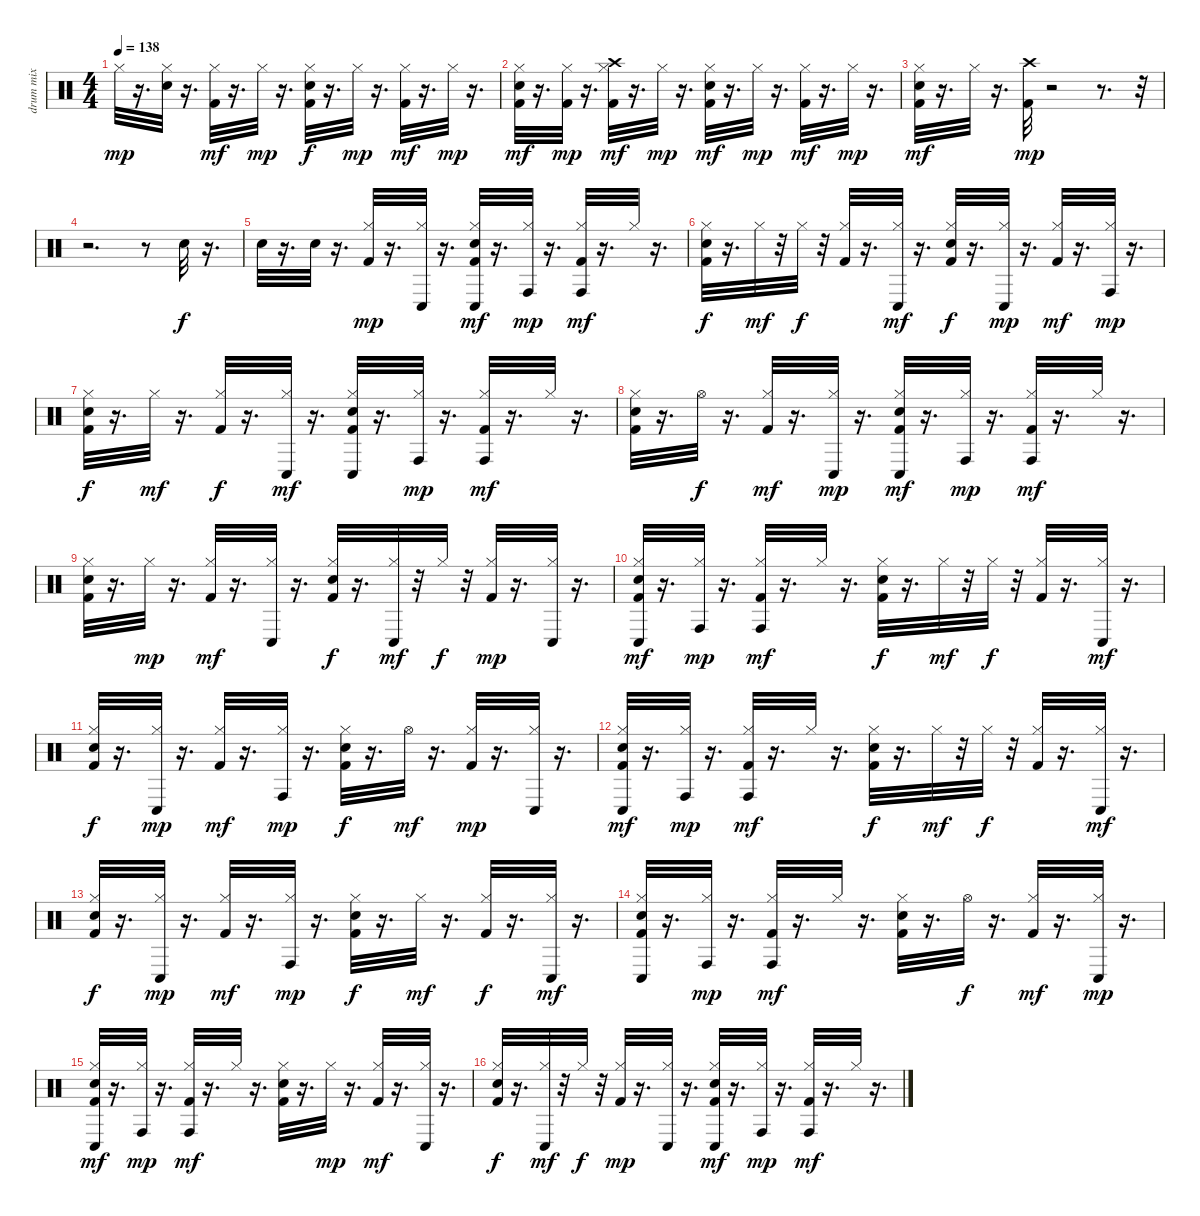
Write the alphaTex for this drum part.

\track ("drum mix" "drum mix") {instrument percussion}
\staff {score}
\articulation defaults
\ts (4 4)
\tempo 138
\clef neutral
\ks c "Hi-Hat (closed)".32{dy mp}
r.16{d} ("Snare (hit) 2" "Hi-Hat (closed)").32 r.16{d} ("Hi-Hat (closed)" "Kick (hit) 2").32{dy mf} r.16{d} "Hi-Hat (closed)".32{dy mp} r.16{d} ("Snare (hit) 2" "Hi-Hat (closed)" "Kick (hit) 2").32{dy f} r.16{d} "Hi-Hat (closed)".32{dy mp} r.16{d} ("Hi-Hat (closed)" "Kick (hit) 2").32{dy mf} r.16{d} "Hi-Hat (closed)".32{dy mp} r.16{d} |
("Snare (hit) 2" "Hi-Hat (closed)" "Kick (hit) 2").32{dy mf} r.16{d} ("Hi-Hat (closed)" "Kick (hit) 2").32{dy mp} r.16{d} ("Hi-Hat (closed)" "Crash high (hit)" "Kick (hit) 2").32{dy mf} r.16{d} "Hi-Hat (closed)".32{dy mp} r.16{d} ("Snare (hit) 2" "Hi-Hat (closed)" "Kick (hit) 2").32{dy mf} r.16{d} "Hi-Hat (closed)".32{dy mp} r.16{d} ("Hi-Hat (closed)" "Kick (hit) 2").32{dy mf} r.16{d} "Hi-Hat (closed)".32{dy mp} r.16{d} |
("Snare (hit) 2" "Hi-Hat (closed)" "Kick (hit) 2").32{dy mf} r.16{d} "Hi-Hat (closed)".32 r.16{d} ("Crash high (hit)" "Kick (hit) 2").32{dy mp} r.2 r.8{d} r.32 |
r.2{d} r.8 "Snare (hit) 2".32{dy f} r.16{d} |
"Snare (hit) 2".32 r.16{d} "Snare (hit) 2".32 r.16{d} ("Hi-Hat (closed)" "Kick (hit) 2").32{dy mp} r.16{d} ("Hi-Hat (closed)" "Conga low (hit)").32 r.16{d} ("Snare (hit) 2" "Hi-Hat (closed)" "Conga low (hit)" "Kick (hit) 2").32{dy mf} r.16{d} ("Hi-Hat (closed)" "Conga high (hit)").32{dy mp} r.16{d} ("Hi-Hat (closed)" "Conga high (hit)" "Kick (hit) 2").32{dy mf} r.16{d} "Hi-Hat (closed)".32 r.16{d} |
("Snare (hit) 2" "Hi-Hat (closed)" "Kick (hit) 2").32{dy f} r.16{d} "Hi-Hat (closed)".32{dy mf} r.32 "Hi-Hat (closed)".32{dy f} r.32 ("Hi-Hat (closed)" "Kick (hit) 2").32 r.16{d} ("Hi-Hat (closed)" "Conga low (hit)").32{dy mf} r.16{d} ("Snare (hit) 2" "Hi-Hat (closed)" "Kick (hit) 2").32{dy f} r.16{d} ("Hi-Hat (closed)" "Conga low (hit)").32{dy mp} r.16{d} ("Hi-Hat (closed)" "Kick (hit) 2").32{dy mf} r.16{d} ("Hi-Hat (closed)" "Conga high (hit)").32{dy mp} r.16{d} |
("Snare (hit) 2" "Hi-Hat (closed)" "Kick (hit) 2").32{dy f} r.16{d} "Hi-Hat (closed)".32{dy mf} r.16{d} ("Hi-Hat (closed)" "Kick (hit) 2").32{dy f} r.16{d} ("Hi-Hat (closed)" "Conga low (hit)").32{dy mf} r.16{d} ("Snare (hit) 2" "Hi-Hat (closed)" "Conga low (hit)" "Kick (hit) 2").32 r.16{d} ("Hi-Hat (closed)" "Conga high (hit)").32{dy mp} r.16{d} ("Hi-Hat (closed)" "Conga high (hit)" "Kick (hit) 2").32{dy mf} r.16{d} "Hi-Hat (closed)".32 r.16{d} |
("Snare (hit) 2" "Hi-Hat (closed)" "Kick (hit) 2").32 r.16{d} "Hi-Hat (open)".32{dy f} r.16{d} ("Hi-Hat (closed)" "Kick (hit) 2").32{dy mf} r.16{d} ("Hi-Hat (closed)" "Conga low (hit)").32{dy mp} r.16{d} ("Snare (hit) 2" "Hi-Hat (closed)" "Conga low (hit)" "Kick (hit) 2").32{dy mf} r.16{d} ("Hi-Hat (closed)" "Conga high (hit)").32{dy mp} r.16{d} ("Hi-Hat (closed)" "Conga high (hit)" "Kick (hit) 2").32{dy mf} r.16{d} "Hi-Hat (closed)".32 r.16{d} |
("Snare (hit) 2" "Hi-Hat (closed)" "Kick (hit) 2").32 r.16{d} "Hi-Hat (closed)".32{dy mp} r.16{d} ("Hi-Hat (closed)" "Kick (hit) 2").32{dy mf} r.16{d} ("Hi-Hat (closed)" "Conga low (hit)").32 r.16{d} ("Snare (hit) 2" "Hi-Hat (closed)" "Kick (hit) 2").32{dy f} r.16{d} ("Hi-Hat (closed)" "Conga low (hit)").32{dy mf} r.32 "Hi-Hat (closed)".32{dy f} r.32 ("Hi-Hat (closed)" "Kick (hit) 2").32{dy mp} r.16{d} ("Hi-Hat (closed)" "Conga low (hit)").32 r.16{d} |
("Snare (hit) 2" "Hi-Hat (closed)" "Conga low (hit)" "Kick (hit) 2").32{dy mf} r.16{d} ("Hi-Hat (closed)" "Conga high (hit)").32{dy mp} r.16{d} ("Hi-Hat (closed)" "Conga high (hit)" "Kick (hit) 2").32{dy mf} r.16{d} "Hi-Hat (closed)".32 r.16{d} ("Snare (hit) 2" "Hi-Hat (closed)" "Kick (hit) 2").32{dy f} r.16{d} "Hi-Hat (closed)".32{dy mf} r.32 "Hi-Hat (closed)".32{dy f} r.32 ("Hi-Hat (closed)" "Kick (hit) 2").32 r.16{d} ("Hi-Hat (closed)" "Conga low (hit)").32{dy mf} r.16{d} |
("Snare (hit) 2" "Hi-Hat (closed)" "Kick (hit) 2").32{dy f} r.16{d} ("Hi-Hat (closed)" "Conga low (hit)").32{dy mp} r.16{d} ("Hi-Hat (closed)" "Kick (hit) 2").32{dy mf} r.16{d} ("Hi-Hat (closed)" "Conga high (hit)").32{dy mp} r.16{d} ("Snare (hit) 2" "Hi-Hat (closed)" "Kick (hit) 2").32{dy f} r.16{d} "Hi-Hat (open)".32{dy mf} r.16{d} ("Hi-Hat (closed)" "Kick (hit) 2").32{dy mp} r.16{d} ("Hi-Hat (closed)" "Conga low (hit)").32 r.16{d} |
("Snare (hit) 2" "Hi-Hat (closed)" "Conga low (hit)" "Kick (hit) 2").32{dy mf} r.16{d} ("Hi-Hat (closed)" "Conga high (hit)").32{dy mp} r.16{d} ("Hi-Hat (closed)" "Conga high (hit)" "Kick (hit) 2").32{dy mf} r.16{d} "Hi-Hat (closed)".32 r.16{d} ("Snare (hit) 2" "Hi-Hat (closed)" "Kick (hit) 2").32{dy f} r.16{d} "Hi-Hat (closed)".32{dy mf} r.32 "Hi-Hat (closed)".32{dy f} r.32 ("Hi-Hat (closed)" "Kick (hit) 2").32 r.16{d} ("Hi-Hat (closed)" "Conga low (hit)").32{dy mf} r.16{d} |
("Snare (hit) 2" "Hi-Hat (closed)" "Kick (hit) 2").32{dy f} r.16{d} ("Hi-Hat (closed)" "Conga low (hit)").32{dy mp} r.16{d} ("Hi-Hat (closed)" "Kick (hit) 2").32{dy mf} r.16{d} ("Hi-Hat (closed)" "Conga high (hit)").32{dy mp} r.16{d} ("Snare (hit) 2" "Hi-Hat (closed)" "Kick (hit) 2").32{dy f} r.16{d} "Hi-Hat (closed)".32{dy mf} r.16{d} ("Hi-Hat (closed)" "Kick (hit) 2").32{dy f} r.16{d} ("Hi-Hat (closed)" "Conga low (hit)").32{dy mf} r.16{d} |
("Snare (hit) 2" "Hi-Hat (closed)" "Conga low (hit)" "Kick (hit) 2").32 r.16{d} ("Hi-Hat (closed)" "Conga high (hit)").32{dy mp} r.16{d} ("Hi-Hat (closed)" "Conga high (hit)" "Kick (hit) 2").32{dy mf} r.16{d} "Hi-Hat (closed)".32 r.16{d} ("Snare (hit) 2" "Hi-Hat (closed)" "Kick (hit) 2").32 r.16{d} "Hi-Hat (open)".32{dy f} r.16{d} ("Hi-Hat (closed)" "Kick (hit) 2").32{dy mf} r.16{d} ("Hi-Hat (closed)" "Conga low (hit)").32{dy mp} r.16{d} |
("Snare (hit) 2" "Hi-Hat (closed)" "Conga low (hit)" "Kick (hit) 2").32{dy mf} r.16{d} ("Hi-Hat (closed)" "Conga high (hit)").32{dy mp} r.16{d} ("Hi-Hat (closed)" "Conga high (hit)" "Kick (hit) 2").32{dy mf} r.16{d} "Hi-Hat (closed)".32 r.16{d} ("Snare (hit) 2" "Hi-Hat (closed)" "Kick (hit) 2").32 r.16{d} "Hi-Hat (closed)".32{dy mp} r.16{d} ("Hi-Hat (closed)" "Kick (hit) 2").32{dy mf} r.16{d} ("Hi-Hat (closed)" "Conga low (hit)").32 r.16{d} |
("Snare (hit) 2" "Hi-Hat (closed)" "Kick (hit) 2").32{dy f} r.16{d} ("Hi-Hat (closed)" "Conga low (hit)").32{dy mf} r.32 "Hi-Hat (closed)".32{dy f} r.32 ("Hi-Hat (closed)" "Kick (hit) 2").32{dy mp} r.16{d} ("Hi-Hat (closed)" "Conga low (hit)").32 r.16{d} ("Snare (hit) 2" "Hi-Hat (closed)" "Conga low (hit)" "Kick (hit) 2").32{dy mf} r.16{d} ("Hi-Hat (closed)" "Conga high (hit)").32{dy mp} r.16{d} ("Hi-Hat (closed)" "Conga high (hit)" "Kick (hit) 2").32{dy mf} r.16{d} "Hi-Hat (closed)".32 r.16{d}
